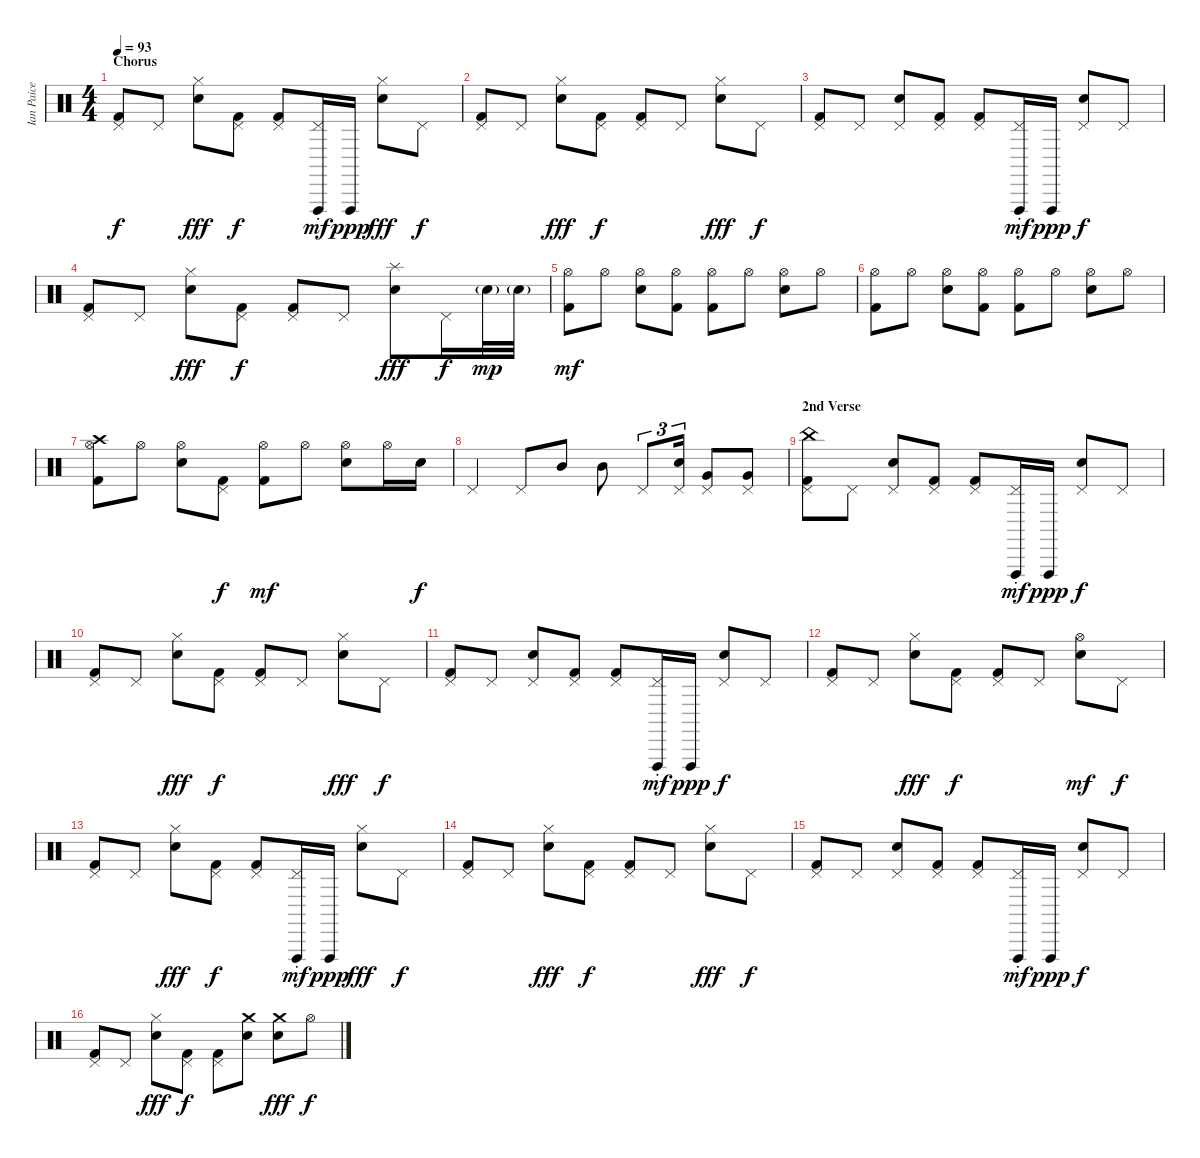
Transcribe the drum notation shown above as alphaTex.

\track ("Ian Paice (drums)" "Ian Paice ") {instrument percussion}
\staff {score}
\articulation defaults
\ts (4 4)
\section ("" "Chorus")
\tempo 93
\clef neutral
\ks c
("Pedal Hi-Hat (hit)" "Kick (hit) 2").8{dy f} "Pedal Hi-Hat (hit)".8 ("Hi-Hat (closed)" "Electric Snare (hit)").8{dy fff} ("Pedal Hi-Hat (hit)" "Kick (hit) 2").8{dy f} ("Pedal Hi-Hat (hit)" "Kick (hit) 2").8 ("Pedal Hi-Hat (hit)" "Vibraslap (hit)"{st}).16{dy mf} "Vibraslap (hit)".16{dy ppp} ("Hi-Hat (closed)" "Electric Snare (hit)").8{dy fff} "Pedal Hi-Hat (hit)".8{dy f} |
("Pedal Hi-Hat (hit)" "Kick (hit) 2").8 "Pedal Hi-Hat (hit)".8 ("Hi-Hat (closed)" "Electric Snare (hit)").8{dy fff} ("Pedal Hi-Hat (hit)" "Kick (hit) 2").8{dy f} ("Pedal Hi-Hat (hit)" "Kick (hit) 2").8 "Pedal Hi-Hat (hit)".8 ("Hi-Hat (closed)" "Electric Snare (hit)").8{dy fff} "Pedal Hi-Hat (hit)".8{dy f} |
("Pedal Hi-Hat (hit)" "Kick (hit) 2").8 "Pedal Hi-Hat (hit)".8 ("Pedal Hi-Hat (hit)" "Electric Snare (hit)").8 ("Pedal Hi-Hat (hit)" "Kick (hit) 2").8 ("Pedal Hi-Hat (hit)" "Kick (hit) 2").8 ("Pedal Hi-Hat (hit)" "Vibraslap (hit)"{st}).16{dy mf} "Vibraslap (hit)".16{dy ppp} ("Pedal Hi-Hat (hit)" "Electric Snare (hit)").8{dy f} "Pedal Hi-Hat (hit)".8 |
("Pedal Hi-Hat (hit)" "Kick (hit) 2").8 "Pedal Hi-Hat (hit)".8 ("Hi-Hat (closed)" "Electric Snare (hit)").8{dy fff} ("Pedal Hi-Hat (hit)" "Kick (hit) 2").8{dy f} ("Pedal Hi-Hat (hit)" "Kick (hit) 2").8 "Pedal Hi-Hat (hit)".8 ("Splash (hit)" "Electric Snare (hit)").8{dy fff} "Pedal Hi-Hat (hit)".16{dy f} "Electric Snare (hit)"{g}.32{dy mp} "Electric Snare (hit)"{g}.32 |
("Hi-Hat (open)" "Kick (hit) 2").8{dy mf} "Hi-Hat (open)".8 ("Hi-Hat (open)" "Electric Snare (hit)").8 ("Hi-Hat (open)" "Kick (hit) 2").8 ("Hi-Hat (open)" "Kick (hit) 2").8 "Hi-Hat (open)".8 ("Hi-Hat (open)" "Electric Snare (hit)").8 "Hi-Hat (open)".8 |
("Hi-Hat (open)" "Kick (hit) 2").8 "Hi-Hat (open)".8 ("Hi-Hat (open)" "Electric Snare (hit)").8 ("Hi-Hat (open)" "Kick (hit) 2").8 ("Hi-Hat (open)" "Kick (hit) 2").8 "Hi-Hat (open)".8 ("Hi-Hat (open)" "Electric Snare (hit)").8 "Hi-Hat (open)".8 |
("Crash high (hit)" "Hi-Hat (open)" "Kick (hit) 2").8 "Hi-Hat (open)".8 ("Hi-Hat (open)" "Electric Snare (hit)").8 ("Pedal Hi-Hat (hit)" "Kick (hit) 2").8{dy f} ("Hi-Hat (open)" "Kick (hit) 2").8{dy mf} "Hi-Hat (open)".8 ("Hi-Hat (open)" "Electric Snare (hit)").8 "Hi-Hat (open)".16 "Electric Snare (hit)".16{dy f} |
"Pedal Hi-Hat (hit)".4 "Pedal Hi-Hat (hit)".8 "Mid Tom (hit)".8 "Mid Tom (hit)".8 "Pedal Hi-Hat (hit)".8{tu (3 2)} ("Pedal Hi-Hat (hit)" "Electric Snare (hit)").16{tu (3 2)} ("Pedal Hi-Hat (hit)" "Very Low Tom (hit)").8 ("Pedal Hi-Hat (hit)" "Very Low Tom (hit)").8 |
\section ("" "2nd Verse")
("China (hit)" "Pedal Hi-Hat (hit)" "Kick (hit) 2").8 "Pedal Hi-Hat (hit)".8 ("Pedal Hi-Hat (hit)" "Electric Snare (hit)").8 ("Pedal Hi-Hat (hit)" "Kick (hit) 2").8 ("Pedal Hi-Hat (hit)" "Kick (hit) 2").8 ("Pedal Hi-Hat (hit)" "Vibraslap (hit)"{st}).16{dy mf} "Vibraslap (hit)".16{dy ppp} ("Pedal Hi-Hat (hit)" "Electric Snare (hit)").8{dy f} "Pedal Hi-Hat (hit)".8 |
("Pedal Hi-Hat (hit)" "Kick (hit) 2").8 "Pedal Hi-Hat (hit)".8 ("Hi-Hat (closed)" "Electric Snare (hit)").8{dy fff} ("Pedal Hi-Hat (hit)" "Kick (hit) 2").8{dy f} ("Pedal Hi-Hat (hit)" "Kick (hit) 2").8 "Pedal Hi-Hat (hit)".8 ("Hi-Hat (closed)" "Electric Snare (hit)").8{dy fff} "Pedal Hi-Hat (hit)".8{dy f} |
("Pedal Hi-Hat (hit)" "Kick (hit) 2").8 "Pedal Hi-Hat (hit)".8 ("Pedal Hi-Hat (hit)" "Electric Snare (hit)").8 ("Pedal Hi-Hat (hit)" "Kick (hit) 2").8 ("Pedal Hi-Hat (hit)" "Kick (hit) 2").8 ("Pedal Hi-Hat (hit)" "Vibraslap (hit)"{st}).16{dy mf} "Vibraslap (hit)".16{dy ppp} ("Pedal Hi-Hat (hit)" "Electric Snare (hit)").8{dy f} "Pedal Hi-Hat (hit)".8 |
("Pedal Hi-Hat (hit)" "Kick (hit) 2").8 "Pedal Hi-Hat (hit)".8 ("Hi-Hat (closed)" "Electric Snare (hit)").8{dy fff} ("Pedal Hi-Hat (hit)" "Kick (hit) 2").8{dy f} ("Pedal Hi-Hat (hit)" "Kick (hit) 2").8 "Pedal Hi-Hat (hit)".8 ("Hi-Hat (open)" "Electric Snare (hit)").8{dy mf} "Pedal Hi-Hat (hit)".8{dy f} |
("Pedal Hi-Hat (hit)" "Kick (hit) 2").8 "Pedal Hi-Hat (hit)".8 ("Hi-Hat (closed)" "Electric Snare (hit)").8{dy fff} ("Pedal Hi-Hat (hit)" "Kick (hit) 2").8{dy f} ("Pedal Hi-Hat (hit)" "Kick (hit) 2").8 ("Pedal Hi-Hat (hit)" "Vibraslap (hit)"{st}).16{dy mf} "Vibraslap (hit)".16{dy ppp} ("Hi-Hat (closed)" "Electric Snare (hit)").8{dy fff} "Pedal Hi-Hat (hit)".8{dy f} |
("Pedal Hi-Hat (hit)" "Kick (hit) 2").8 "Pedal Hi-Hat (hit)".8 ("Hi-Hat (closed)" "Electric Snare (hit)").8{dy fff} ("Pedal Hi-Hat (hit)" "Kick (hit) 2").8{dy f} ("Pedal Hi-Hat (hit)" "Kick (hit) 2").8 "Pedal Hi-Hat (hit)".8 ("Hi-Hat (closed)" "Electric Snare (hit)").8{dy fff} "Pedal Hi-Hat (hit)".8{dy f} |
("Pedal Hi-Hat (hit)" "Kick (hit) 2").8 "Pedal Hi-Hat (hit)".8 ("Pedal Hi-Hat (hit)" "Electric Snare (hit)").8 ("Pedal Hi-Hat (hit)" "Kick (hit) 2").8 ("Pedal Hi-Hat (hit)" "Kick (hit) 2").8 ("Pedal Hi-Hat (hit)" "Vibraslap (hit)"{st}).16{dy mf} "Vibraslap (hit)".16{dy ppp} ("Pedal Hi-Hat (hit)" "Electric Snare (hit)").8{dy f} "Pedal Hi-Hat (hit)".8 |
("Pedal Hi-Hat (hit)" "Kick (hit) 2").8 "Pedal Hi-Hat (hit)".8 ("Hi-Hat (closed)" "Electric Snare (hit)").8{dy fff} ("Pedal Hi-Hat (hit)" "Kick (hit) 2").8{dy f} ("Pedal Hi-Hat (hit)" "Kick (hit) 2").8 ("Crash medium (hit)" "Electric Snare (hit)").8 ("Crash medium (hit)" "Electric Snare (hit)").8{dy fff} "Hi-Hat (open)".8{dy f}
